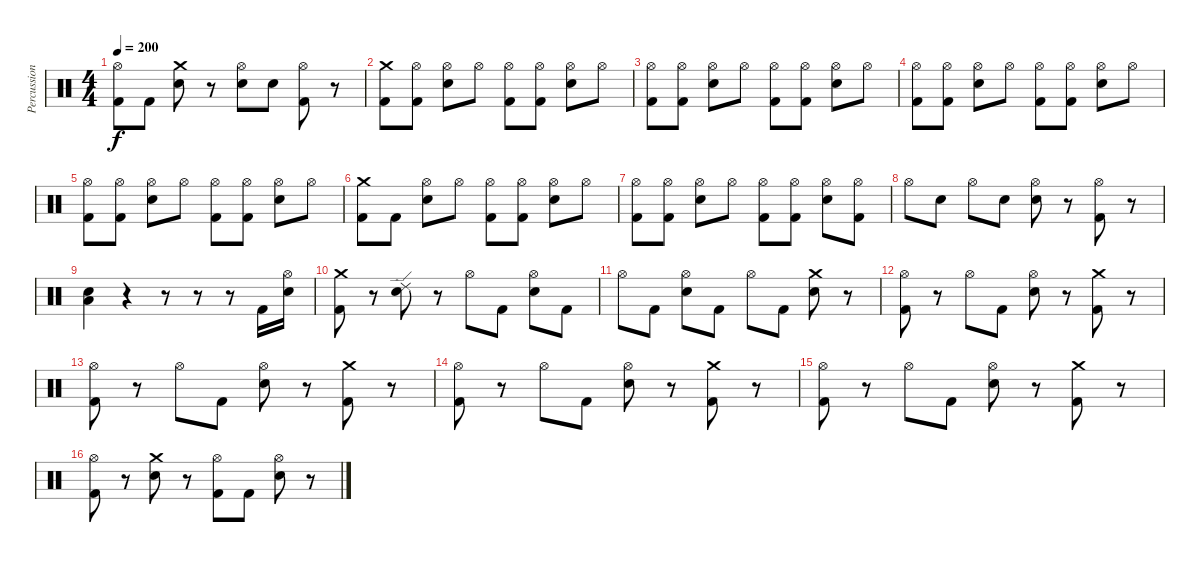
\track ("Percussion" "Percussion") {instrument percussion}
\staff {score}
\articulation defaults
\ts (4 4)
\tempo 200
\clef neutral
\ks c
("Hi-Hat (open)" "Kick (hit) 2").8{dy f} "Kick (hit) 2".8 ("Crash medium (hit)" "Snare (hit) 2").8 r.8 ("Hi-Hat (open)" "Snare (hit) 2").8 "Snare (hit) 2".8 ("Hi-Hat (open)" "Kick (hit) 2").8 r.8 |
("Crash medium (hit)" "Kick (hit) 2").8 ("Hi-Hat (open)" "Kick (hit) 2").8 ("Hi-Hat (open)" "Snare (hit) 2").8 "Hi-Hat (open)".8 ("Hi-Hat (open)" "Kick (hit) 2").8 ("Hi-Hat (open)" "Kick (hit) 2").8 ("Hi-Hat (open)" "Snare (hit) 2").8 "Hi-Hat (open)".8 |
("Hi-Hat (open)" "Kick (hit) 2").8 ("Hi-Hat (open)" "Kick (hit) 2").8 ("Hi-Hat (open)" "Snare (hit) 2").8 "Hi-Hat (open)".8 ("Hi-Hat (open)" "Kick (hit) 2").8 ("Hi-Hat (open)" "Kick (hit) 2").8 ("Hi-Hat (open)" "Snare (hit) 2").8 "Hi-Hat (open)".8 |
("Hi-Hat (open)" "Kick (hit) 2").8 ("Hi-Hat (open)" "Kick (hit) 2").8 ("Hi-Hat (open)" "Snare (hit) 2").8 "Hi-Hat (open)".8 ("Hi-Hat (open)" "Kick (hit) 2").8 ("Hi-Hat (open)" "Kick (hit) 2").8 ("Hi-Hat (open)" "Snare (hit) 2").8 "Hi-Hat (open)".8 |
("Hi-Hat (open)" "Kick (hit) 2").8 ("Hi-Hat (open)" "Kick (hit) 2").8 ("Hi-Hat (open)" "Snare (hit) 2").8 "Hi-Hat (open)".8 ("Hi-Hat (open)" "Kick (hit) 2").8 ("Hi-Hat (open)" "Kick (hit) 2").8 ("Hi-Hat (open)" "Snare (hit) 2").8 "Hi-Hat (open)".8 |
("Crash medium (hit)" "Kick (hit) 2").8 "Kick (hit) 2".8 ("Hi-Hat (open)" "Snare (hit) 2").8 "Hi-Hat (open)".8 ("Hi-Hat (open)" "Kick (hit) 2").8 ("Hi-Hat (open)" "Kick (hit) 2").8 ("Hi-Hat (open)" "Snare (hit) 2").8 "Hi-Hat (open)".8 |
("Hi-Hat (open)" "Kick (hit) 2").8 ("Hi-Hat (open)" "Kick (hit) 2").8 ("Hi-Hat (open)" "Snare (hit) 2").8 "Hi-Hat (open)".8 ("Hi-Hat (open)" "Kick (hit) 2").8 ("Hi-Hat (open)" "Kick (hit) 2").8 ("Hi-Hat (open)" "Snare (hit) 2").8 ("Hi-Hat (open)" "Kick (hit) 2").8 |
"Hi-Hat (open)".8 "Snare (hit) 2".8 "Hi-Hat (open)".8 "Snare (hit) 2".8 ("Hi-Hat (open)" "Snare (hit) 2").8 r.8 ("Hi-Hat (open)" "Kick (hit) 2").8 r.8 |
("Snare (hit) 2" "Low Floor Tom (hit)").4 r.4 r.8 r.8 r.8 "Kick (hit) 2".16 ("Hi-Hat (open)" "Snare (hit) 2").16 |
("Crash medium (hit)" "Kick (hit) 2").8 r.8 ("Ride (edge) 2" "Snare (hit) 2").8 r.8 "Hi-Hat (open)".8 "Kick (hit) 2".8 ("Hi-Hat (open)" "Snare (hit) 2").8 "Kick (hit) 2".8 |
"Hi-Hat (open)".8 "Kick (hit) 2".8 ("Hi-Hat (open)" "Snare (hit) 2").8 "Kick (hit) 2".8 "Hi-Hat (open)".8 "Kick (hit) 2".8 ("Crash medium (hit)" "Snare (hit) 2").8 r.8 |
("Hi-Hat (open)" "Kick (hit) 2").8 r.8 "Hi-Hat (open)".8 "Kick (hit) 2".8 ("Hi-Hat (open)" "Snare (hit) 2").8 r.8 ("Crash medium (hit)" "Kick (hit) 2").8 r.8 |
("Hi-Hat (open)" "Kick (hit) 2").8 r.8 "Hi-Hat (open)".8 "Kick (hit) 2".8 ("Hi-Hat (open)" "Snare (hit) 2").8 r.8 ("Crash medium (hit)" "Kick (hit) 2").8 r.8 |
("Hi-Hat (open)" "Kick (hit) 2").8 r.8 "Hi-Hat (open)".8 "Kick (hit) 2".8 ("Hi-Hat (open)" "Snare (hit) 2").8 r.8 ("Crash medium (hit)" "Kick (hit) 2").8 r.8 |
("Hi-Hat (open)" "Kick (hit) 2").8 r.8 "Hi-Hat (open)".8 "Kick (hit) 2".8 ("Hi-Hat (open)" "Snare (hit) 2").8 r.8 ("Crash medium (hit)" "Kick (hit) 2").8 r.8 |
("Hi-Hat (open)" "Kick (hit) 2").8 r.8 ("Crash medium (hit)" "Snare (hit) 2").8 r.8 ("Hi-Hat (open)" "Kick (hit) 2").8 "Kick (hit) 2".8 ("Hi-Hat (open)" "Snare (hit) 2").8 r.8
